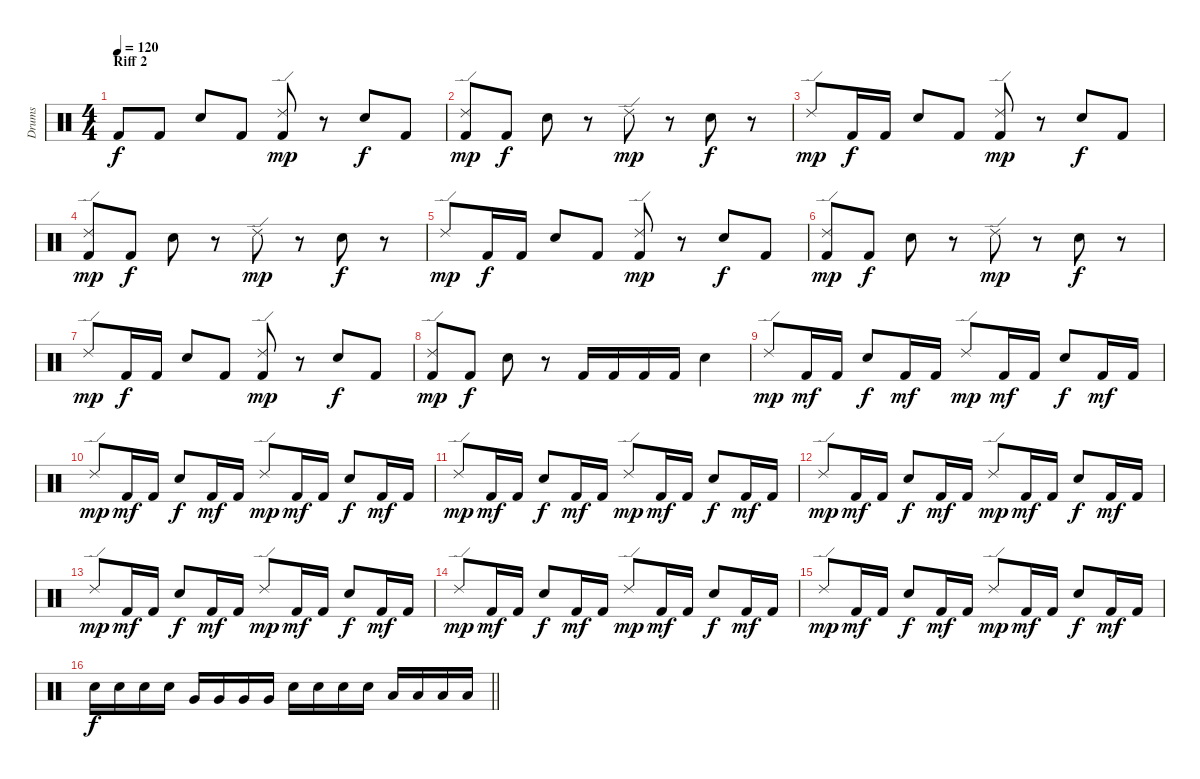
\track ("Drums" "Drums") {instrument percussion}
\staff {score}
\articulation defaults
\ts (4 4)
\section ("" "Riff 2")
\tempo 120
\clef neutral
\ks c "Kick (hit) 2".8{dy f} "Kick (hit) 2".8 "Snare (hit) 2".8 "Kick (hit) 2".8
("Kick (hit) 2" "Ride (edge) 2").8{dy mp} r.8 "Snare (hit) 2".8{dy f} "Kick (hit) 2".8 |
("Kick (hit) 2" "Ride (edge) 2").8{dy mp} "Kick (hit) 2".8{dy f} "Snare (hit) 2".8 r.8 "Ride (edge) 2".8{dy mp} r.8 "Snare (hit) 2".8{dy f} r.8 |
"Ride (edge) 2".8{dy mp} "Kick (hit) 2".16{dy f} "Kick (hit) 2".16 "Snare (hit) 2".8 "Kick (hit) 2".8 ("Kick (hit) 2" "Ride (edge) 2").8{dy mp} r.8 "Snare (hit) 2".8{dy f} "Kick (hit) 2".8 |
("Kick (hit) 2" "Ride (edge) 2").8{dy mp} "Kick (hit) 2".8{dy f} "Snare (hit) 2".8 r.8 "Ride (edge) 2".8{dy mp} r.8 "Snare (hit) 2".8{dy f} r.8 |
"Ride (edge) 2".8{dy mp} "Kick (hit) 2".16{dy f} "Kick (hit) 2".16 "Snare (hit) 2".8 "Kick (hit) 2".8 ("Kick (hit) 2" "Ride (edge) 2").8{dy mp} r.8 "Snare (hit) 2".8{dy f} "Kick (hit) 2".8 |
("Kick (hit) 2" "Ride (edge) 2").8{dy mp} "Kick (hit) 2".8{dy f} "Snare (hit) 2".8 r.8 "Ride (edge) 2".8{dy mp} r.8 "Snare (hit) 2".8{dy f} r.8 |
"Ride (edge) 2".8{dy mp} "Kick (hit) 2".16{dy f} "Kick (hit) 2".16 "Snare (hit) 2".8 "Kick (hit) 2".8 ("Kick (hit) 2" "Ride (edge) 2").8{dy mp} r.8 "Snare (hit) 2".8{dy f} "Kick (hit) 2".8 |
("Kick (hit) 2" "Ride (edge) 2").8{dy mp} "Kick (hit) 2".8{dy f} "Snare (hit) 2".8 r.8 "Kick (hit) 2".16 "Kick (hit) 2".16 "Kick (hit) 2".16 "Kick (hit) 2".16 "Snare (hit) 2".4 |
"Ride (edge) 2".8{dy mp} "Kick (hit) 2".16{dy mf} "Kick (hit) 2".16 "Snare (hit) 2".8{dy f} "Kick (hit) 2".16{dy mf} "Kick (hit) 2".16 "Ride (edge) 2".8{dy mp} "Kick (hit) 2".16{dy mf} "Kick (hit) 2".16 "Snare (hit) 2".8{dy f} "Kick (hit) 2".16{dy mf} "Kick (hit) 2".16 |
"Ride (edge) 2".8{dy mp} "Kick (hit) 2".16{dy mf} "Kick (hit) 2".16 "Snare (hit) 2".8{dy f} "Kick (hit) 2".16{dy mf} "Kick (hit) 2".16 "Ride (edge) 2".8{dy mp} "Kick (hit) 2".16{dy mf} "Kick (hit) 2".16 "Snare (hit) 2".8{dy f} "Kick (hit) 2".16{dy mf} "Kick (hit) 2".16 |
"Ride (edge) 2".8{dy mp} "Kick (hit) 2".16{dy mf} "Kick (hit) 2".16 "Snare (hit) 2".8{dy f} "Kick (hit) 2".16{dy mf} "Kick (hit) 2".16 "Ride (edge) 2".8{dy mp} "Kick (hit) 2".16{dy mf} "Kick (hit) 2".16 "Snare (hit) 2".8{dy f} "Kick (hit) 2".16{dy mf} "Kick (hit) 2".16 |
"Ride (edge) 2".8{dy mp} "Kick (hit) 2".16{dy mf} "Kick (hit) 2".16 "Snare (hit) 2".8{dy f} "Kick (hit) 2".16{dy mf} "Kick (hit) 2".16 "Ride (edge) 2".8{dy mp} "Kick (hit) 2".16{dy mf} "Kick (hit) 2".16 "Snare (hit) 2".8{dy f} "Kick (hit) 2".16{dy mf} "Kick (hit) 2".16 |
"Ride (edge) 2".8{dy mp} "Kick (hit) 2".16{dy mf} "Kick (hit) 2".16 "Snare (hit) 2".8{dy f} "Kick (hit) 2".16{dy mf} "Kick (hit) 2".16 "Ride (edge) 2".8{dy mp} "Kick (hit) 2".16{dy mf} "Kick (hit) 2".16 "Snare (hit) 2".8{dy f} "Kick (hit) 2".16{dy mf} "Kick (hit) 2".16 |
"Ride (edge) 2".8{dy mp} "Kick (hit) 2".16{dy mf} "Kick (hit) 2".16 "Snare (hit) 2".8{dy f} "Kick (hit) 2".16{dy mf} "Kick (hit) 2".16 "Ride (edge) 2".8{dy mp} "Kick (hit) 2".16{dy mf} "Kick (hit) 2".16 "Snare (hit) 2".8{dy f} "Kick (hit) 2".16{dy mf} "Kick (hit) 2".16 |
"Ride (edge) 2".8{dy mp} "Kick (hit) 2".16{dy mf} "Kick (hit) 2".16 "Snare (hit) 2".8{dy f} "Kick (hit) 2".16{dy mf} "Kick (hit) 2".16 "Ride (edge) 2".8{dy mp} "Kick (hit) 2".16{dy mf} "Kick (hit) 2".16 "Snare (hit) 2".8{dy f} "Kick (hit) 2".16{dy mf} "Kick (hit) 2".16 |
\barLineRight lightlight "Snare (hit) 2".16{dy f} "Snare (hit) 2".16 "Snare (hit) 2".16 "Snare (hit) 2".16 "Very Low Tom (hit)".16 "Very Low Tom (hit)".16 "Very Low Tom (hit)".16 "Very Low Tom (hit)".16 "Snare (hit) 2".16 "Snare (hit) 2".16 "Snare (hit) 2".16 "Snare (hit) 2".16 "Low Floor Tom (hit)".16 "Low Floor Tom (hit)".16 "Low Floor Tom (hit)".16 "Low Floor Tom (hit)".16
